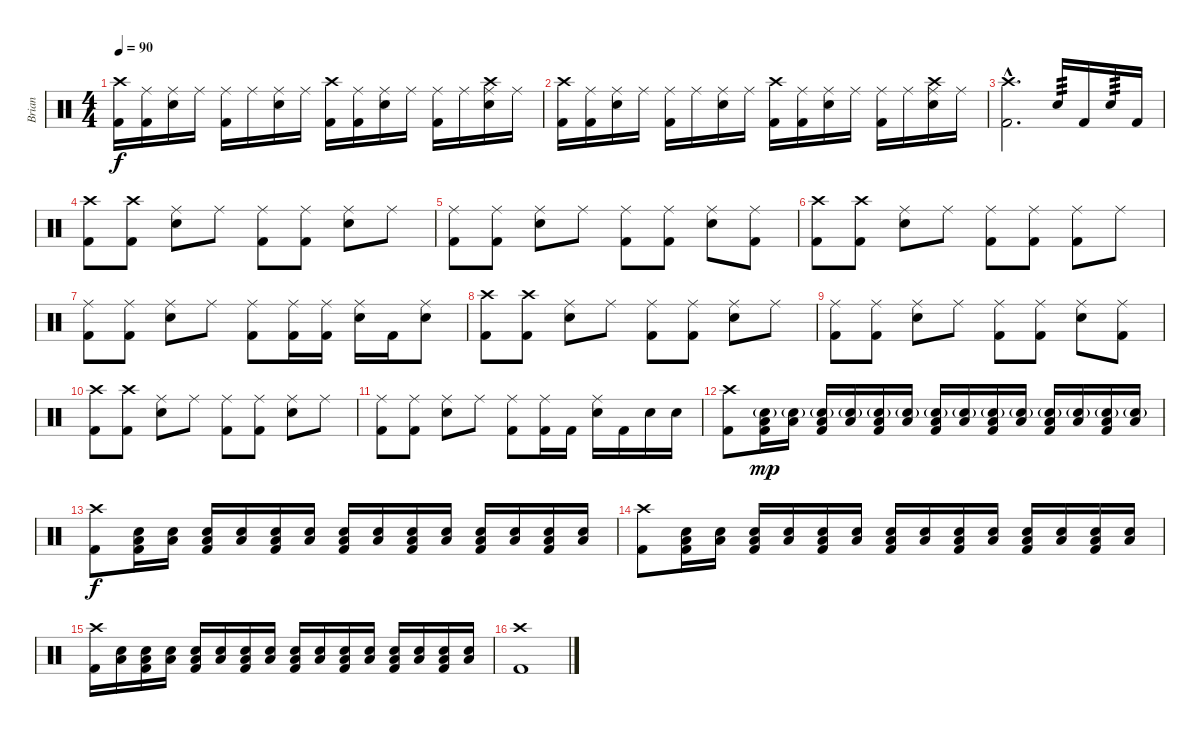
\track ("Brian" "Brian") {instrument percussion}
\staff {score}
\articulation defaults
\ts (4 4)
\tempo 90
\clef neutral
\ks c
("Crash high (hit)" "Kick (hit) 2").16{dy f} ("Ride (middle)" "Kick (hit) 2").16 ("Ride (middle)" "Electric Snare (hit)").16 "Ride (middle)".16 ("Ride (middle)" "Kick (hit) 2").16 "Ride (middle)".16 ("Ride (middle)" "Electric Snare (hit)").16 "Ride (middle)".16 ("Crash high (hit)" "Kick (hit) 2").16 ("Ride (middle)" "Kick (hit) 2").16 ("Ride (middle)" "Electric Snare (hit)").16 "Ride (middle)".16 ("Ride (middle)" "Kick (hit) 2").16 "Ride (middle)".16 ("Crash high (hit)" "Ride (middle)" "Electric Snare (hit)").16 "Ride (middle)".16 |
("Crash high (hit)" "Kick (hit) 2").16 ("Ride (middle)" "Kick (hit) 2").16 ("Ride (middle)" "Electric Snare (hit)").16 "Ride (middle)".16 ("Ride (middle)" "Kick (hit) 2").16 "Ride (middle)".16 ("Ride (middle)" "Electric Snare (hit)").16 "Ride (middle)".16 ("Crash high (hit)" "Kick (hit) 2").16 ("Ride (middle)" "Kick (hit) 2").16 ("Ride (middle)" "Electric Snare (hit)").16 "Ride (middle)".16 ("Ride (middle)" "Kick (hit) 2").16 "Ride (middle)".16 ("Crash high (hit)" "Ride (middle)" "Electric Snare (hit)").16 "Ride (middle)".16 |
("Crash high (hit)"{hac} "Kick (hit) 2"{hac}).2{d} "Electric Snare (hit)".16{tp 3} "Kick (hit) 2".16 "Electric Snare (hit)".16{tp 3} "Kick (hit) 2".16 |
("Crash high (hit)" "Kick (hit) 2").8 ("Crash high (hit)" "Kick (hit) 2").8 ("Ride (middle)" "Electric Snare (hit)").8 "Ride (middle)".8 ("Ride (middle)" "Kick (hit) 2").8 ("Ride (middle)" "Kick (hit) 2").8 ("Ride (middle)" "Electric Snare (hit)").8 "Ride (middle)".8 |
("Ride (middle)" "Kick (hit) 2").8 ("Ride (middle)" "Kick (hit) 2").8 ("Ride (middle)" "Electric Snare (hit)").8 "Ride (middle)".8 ("Ride (middle)" "Kick (hit) 2").8 ("Ride (middle)" "Kick (hit) 2").8 ("Ride (middle)" "Electric Snare (hit)").8 ("Ride (middle)" "Kick (hit) 2").8 |
("Crash high (hit)" "Kick (hit) 2").8 ("Crash high (hit)" "Kick (hit) 2").8 ("Ride (middle)" "Electric Snare (hit)").8 "Ride (middle)".8 ("Ride (middle)" "Kick (hit) 2").8 ("Ride (middle)" "Kick (hit) 2").8 ("Ride (middle)" "Kick (hit) 2").8 "Ride (middle)".8 |
("Ride (middle)" "Kick (hit) 2").8 ("Ride (middle)" "Kick (hit) 2").8 ("Ride (middle)" "Electric Snare (hit)").8 "Ride (middle)".8 ("Ride (middle)" "Kick (hit) 2").8 ("Ride (middle)" "Kick (hit) 2").16 ("Ride (middle)" "Kick (hit) 2").16 ("Ride (middle)" "Electric Snare (hit)").16 "Kick (hit) 2".16 ("Ride (middle)" "Electric Snare (hit)").8 |
("Crash high (hit)" "Kick (hit) 2").8 ("Crash high (hit)" "Kick (hit) 2").8 ("Ride (middle)" "Electric Snare (hit)").8 "Ride (middle)".8 ("Ride (middle)" "Kick (hit) 2").8 ("Ride (middle)" "Kick (hit) 2").8 ("Ride (middle)" "Electric Snare (hit)").8 "Ride (middle)".8 |
("Ride (middle)" "Kick (hit) 2").8 ("Ride (middle)" "Kick (hit) 2").8 ("Ride (middle)" "Electric Snare (hit)").8 "Ride (middle)".8 ("Ride (middle)" "Kick (hit) 2").8 ("Ride (middle)" "Kick (hit) 2").8 ("Ride (middle)" "Electric Snare (hit)").8 ("Ride (middle)" "Kick (hit) 2").8 |
("Crash high (hit)" "Kick (hit) 2").8 ("Crash high (hit)" "Kick (hit) 2").8 ("Ride (middle)" "Electric Snare (hit)").8 "Ride (middle)".8 ("Ride (middle)" "Kick (hit) 2").8 ("Ride (middle)" "Kick (hit) 2").8 ("Ride (middle)" "Electric Snare (hit)").8 "Ride (middle)".8 |
("Ride (middle)" "Kick (hit) 2").8 ("Ride (middle)" "Kick (hit) 2").8 ("Ride (middle)" "Electric Snare (hit)").8 "Ride (middle)".8 ("Ride (middle)" "Kick (hit) 2").8 ("Ride (middle)" "Kick (hit) 2").16 "Kick (hit) 2".16 ("Ride (middle)" "Electric Snare (hit)").16 "Kick (hit) 2".16 "Electric Snare (hit)".16 "Electric Snare (hit)".16 |
("Crash high (hit)" "Kick (hit) 2").8 ("Low Floor Tom (hit)" "Electric Snare (hit)"{g} "Kick (hit) 2").16{dy mp} ("Low Floor Tom (hit)" "Electric Snare (hit)"{g}).16 ("Low Floor Tom (hit)" "Electric Snare (hit)"{g} "Kick (hit) 2").16 ("Low Floor Tom (hit)" "Electric Snare (hit)"{g}).16 ("Low Floor Tom (hit)" "Electric Snare (hit)"{g} "Kick (hit) 2").16 ("Low Floor Tom (hit)" "Electric Snare (hit)"{g}).16 ("Low Floor Tom (hit)" "Electric Snare (hit)"{g} "Kick (hit) 2").16 ("Low Floor Tom (hit)" "Electric Snare (hit)"{g}).16 ("Low Floor Tom (hit)" "Electric Snare (hit)"{g} "Kick (hit) 2").16 ("Low Floor Tom (hit)" "Electric Snare (hit)"{g}).16 ("Low Floor Tom (hit)" "Electric Snare (hit)"{g} "Kick (hit) 2").16 ("Low Floor Tom (hit)" "Electric Snare (hit)"{g}).16 ("Low Floor Tom (hit)" "Electric Snare (hit)"{g} "Kick (hit) 2").16 ("Low Floor Tom (hit)" "Electric Snare (hit)"{g}).16 |
("Crash high (hit)" "Kick (hit) 2").8{dy f} ("Low Floor Tom (hit)" "Electric Snare (hit)" "Kick (hit) 2").16 ("Low Floor Tom (hit)" "Electric Snare (hit)").16 ("Low Floor Tom (hit)" "Electric Snare (hit)" "Kick (hit) 2").16 ("Low Floor Tom (hit)" "Electric Snare (hit)").16 ("Low Floor Tom (hit)" "Electric Snare (hit)" "Kick (hit) 2").16 ("Low Floor Tom (hit)" "Electric Snare (hit)").16 ("Low Floor Tom (hit)" "Electric Snare (hit)" "Kick (hit) 2").16 ("Low Floor Tom (hit)" "Electric Snare (hit)").16 ("Low Floor Tom (hit)" "Electric Snare (hit)" "Kick (hit) 2").16 ("Low Floor Tom (hit)" "Electric Snare (hit)").16 ("Low Floor Tom (hit)" "Electric Snare (hit)" "Kick (hit) 2").16 ("Low Floor Tom (hit)" "Electric Snare (hit)").16 ("Low Floor Tom (hit)" "Electric Snare (hit)" "Kick (hit) 2").16 ("Low Floor Tom (hit)" "Electric Snare (hit)").16 |
("Crash high (hit)" "Kick (hit) 2").8 ("Low Floor Tom (hit)" "Electric Snare (hit)" "Kick (hit) 2").16 ("Low Floor Tom (hit)" "Electric Snare (hit)").16 ("Low Floor Tom (hit)" "Electric Snare (hit)" "Kick (hit) 2").16 ("Low Floor Tom (hit)" "Electric Snare (hit)").16 ("Low Floor Tom (hit)" "Electric Snare (hit)" "Kick (hit) 2").16 ("Low Floor Tom (hit)" "Electric Snare (hit)").16 ("Low Floor Tom (hit)" "Electric Snare (hit)" "Kick (hit) 2").16 ("Low Floor Tom (hit)" "Electric Snare (hit)").16 ("Low Floor Tom (hit)" "Electric Snare (hit)" "Kick (hit) 2").16 ("Low Floor Tom (hit)" "Electric Snare (hit)").16 ("Low Floor Tom (hit)" "Electric Snare (hit)" "Kick (hit) 2").16 ("Low Floor Tom (hit)" "Electric Snare (hit)").16 ("Low Floor Tom (hit)" "Electric Snare (hit)" "Kick (hit) 2").16 ("Low Floor Tom (hit)" "Electric Snare (hit)").16 |
("Crash high (hit)" "Kick (hit) 2").16 ("Low Floor Tom (hit)" "Electric Snare (hit)").16 ("Low Floor Tom (hit)" "Electric Snare (hit)" "Kick (hit) 2").16 ("Low Floor Tom (hit)" "Electric Snare (hit)").16 ("Low Floor Tom (hit)" "Electric Snare (hit)" "Kick (hit) 2").16 ("Low Floor Tom (hit)" "Electric Snare (hit)").16 ("Low Floor Tom (hit)" "Electric Snare (hit)" "Kick (hit) 2").16 ("Low Floor Tom (hit)" "Electric Snare (hit)").16 ("Low Floor Tom (hit)" "Electric Snare (hit)" "Kick (hit) 2").16 ("Low Floor Tom (hit)" "Electric Snare (hit)").16 ("Low Floor Tom (hit)" "Electric Snare (hit)" "Kick (hit) 2").16 ("Low Floor Tom (hit)" "Electric Snare (hit)").16 ("Low Floor Tom (hit)" "Electric Snare (hit)" "Kick (hit) 2").16 ("Low Floor Tom (hit)" "Electric Snare (hit)").16 ("Low Floor Tom (hit)" "Electric Snare (hit)" "Kick (hit) 2").16 ("Low Floor Tom (hit)" "Electric Snare (hit)").16 |
("Crash high (hit)" "Kick (hit) 2").1
